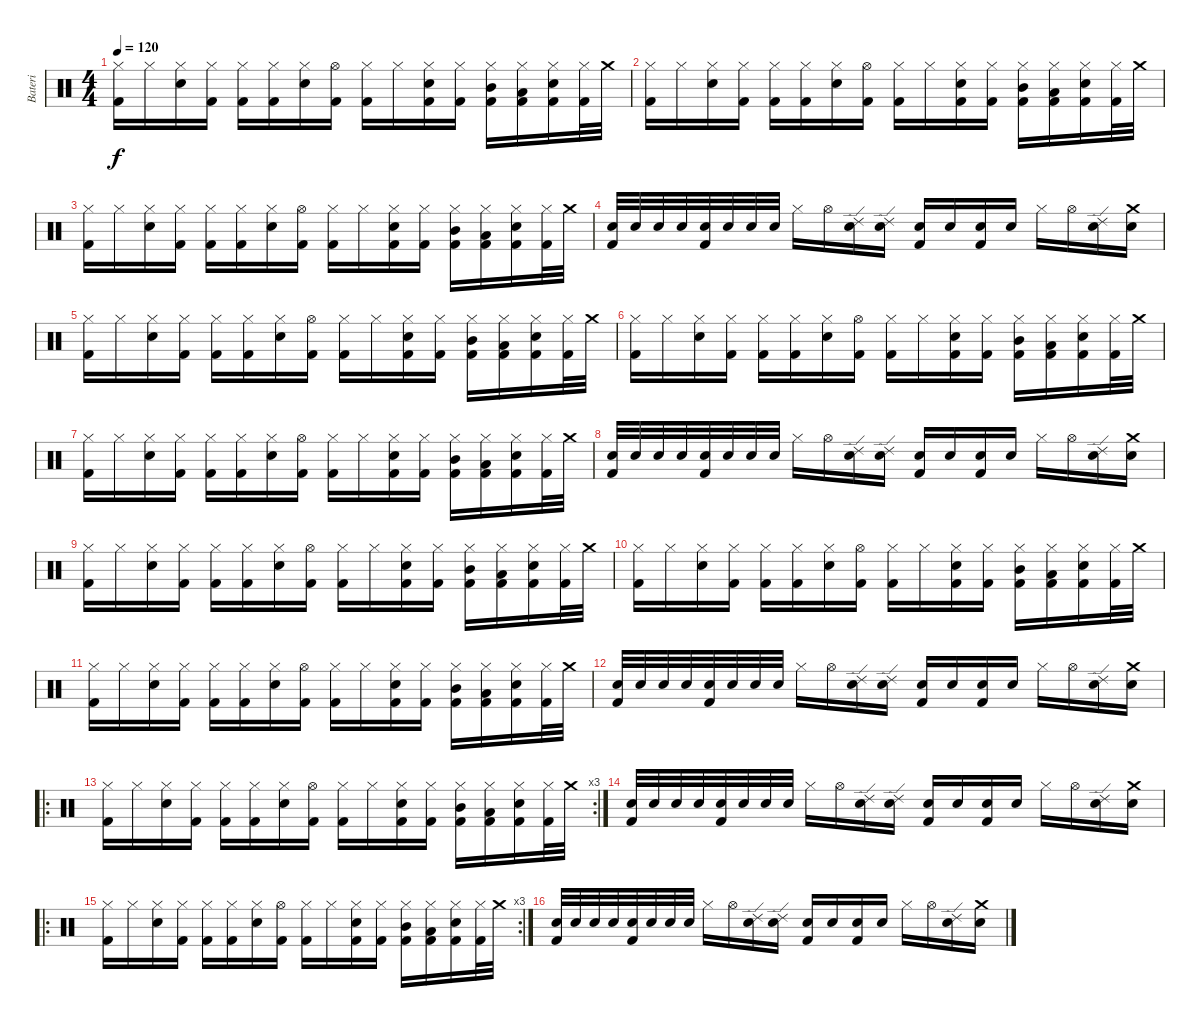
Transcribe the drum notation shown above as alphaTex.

\track ("Bateri" "Bateri") {instrument percussion}
\staff {score}
\articulation defaults
\ts (4 4)
\tempo 120
\clef neutral
\ks c
("Hi-Hat (closed)" "Kick (hit) 2").16{dy f} "Hi-Hat (closed)".16 ("Hi-Hat (closed)" "Electric Snare (hit)").16 ("Hi-Hat (closed)" "Kick (hit) 2").16 ("Hi-Hat (closed)" "Kick (hit) 2").16 ("Hi-Hat (closed)" "Kick (hit) 2").16 ("Hi-Hat (closed)" "Electric Snare (hit)").16 ("Hi-Hat (open)" "Kick (hit) 2").16 ("Hi-Hat (closed)" "Kick (hit) 2").16 "Hi-Hat (closed)".16 ("Hi-Hat (closed)" "Kick (hit) 2" "Electric Snare (hit)").16 ("Hi-Hat (closed)" "Kick (hit) 2").16 ("Hi-Hat (closed)" "Mid Tom (hit)" "Kick (hit) 2").16 ("Hi-Hat (closed)" "Low Tom (hit)" "Kick (hit) 2").16 ("Hi-Hat (closed)" "Electric Snare (hit)" "Kick (hit) 2").16 ("Hi-Hat (closed)" "Kick (hit) 2").32 "Crash medium (hit)".32 |
("Hi-Hat (closed)" "Kick (hit) 2").16 "Hi-Hat (closed)".16 ("Hi-Hat (closed)" "Electric Snare (hit)").16 ("Hi-Hat (closed)" "Kick (hit) 2").16 ("Hi-Hat (closed)" "Kick (hit) 2").16 ("Hi-Hat (closed)" "Kick (hit) 2").16 ("Hi-Hat (closed)" "Electric Snare (hit)").16 ("Hi-Hat (open)" "Kick (hit) 2").16 ("Hi-Hat (closed)" "Kick (hit) 2").16 "Hi-Hat (closed)".16 ("Hi-Hat (closed)" "Kick (hit) 2" "Electric Snare (hit)").16 ("Hi-Hat (closed)" "Kick (hit) 2").16 ("Hi-Hat (closed)" "Mid Tom (hit)" "Kick (hit) 2").16 ("Hi-Hat (closed)" "Low Tom (hit)" "Kick (hit) 2").16 ("Hi-Hat (closed)" "Electric Snare (hit)" "Kick (hit) 2").16 ("Hi-Hat (closed)" "Kick (hit) 2").32 "Crash medium (hit)".32 |
("Hi-Hat (closed)" "Kick (hit) 2").16 "Hi-Hat (closed)".16 ("Hi-Hat (closed)" "Electric Snare (hit)").16 ("Hi-Hat (closed)" "Kick (hit) 2").16 ("Hi-Hat (closed)" "Kick (hit) 2").16 ("Hi-Hat (closed)" "Kick (hit) 2").16 ("Hi-Hat (closed)" "Electric Snare (hit)").16 ("Hi-Hat (open)" "Kick (hit) 2").16 ("Hi-Hat (closed)" "Kick (hit) 2").16 "Hi-Hat (closed)".16 ("Hi-Hat (closed)" "Kick (hit) 2" "Electric Snare (hit)").16 ("Hi-Hat (closed)" "Kick (hit) 2").16 ("Hi-Hat (closed)" "Mid Tom (hit)" "Kick (hit) 2").16 ("Hi-Hat (closed)" "Low Tom (hit)" "Kick (hit) 2").16 ("Hi-Hat (closed)" "Electric Snare (hit)" "Kick (hit) 2").16 ("Hi-Hat (closed)" "Kick (hit) 2").32 "Crash medium (hit)".32 |
("Electric Snare (hit)" "Kick (hit) 2").32 "Electric Snare (hit)".32 "Electric Snare (hit)".32 "Electric Snare (hit)".32 ("Electric Snare (hit)" "Kick (hit) 2").32 "Electric Snare (hit)".32 "Electric Snare (hit)".32 "Electric Snare (hit)".32 "Hi-Hat (closed)".16 "Hi-Hat (open)".16 ("Ride (edge) 2" "Electric Snare (hit)").16 ("Ride (edge) 2" "Electric Snare (hit)").16 ("Electric Snare (hit)" "Kick (hit) 2").16 "Electric Snare (hit)".16 ("Electric Snare (hit)" "Kick (hit) 2").16 "Electric Snare (hit)".16 "Hi-Hat (closed)".16 "Hi-Hat (open)".16 ("Ride (edge) 2" "Electric Snare (hit)").16 ("Crash medium (hit)" "Electric Snare (hit)").16 |
("Hi-Hat (closed)" "Kick (hit) 2").16 "Hi-Hat (closed)".16 ("Hi-Hat (closed)" "Electric Snare (hit)").16 ("Hi-Hat (closed)" "Kick (hit) 2").16 ("Hi-Hat (closed)" "Kick (hit) 2").16 ("Hi-Hat (closed)" "Kick (hit) 2").16 ("Hi-Hat (closed)" "Electric Snare (hit)").16 ("Hi-Hat (open)" "Kick (hit) 2").16 ("Hi-Hat (closed)" "Kick (hit) 2").16 "Hi-Hat (closed)".16 ("Hi-Hat (closed)" "Kick (hit) 2" "Electric Snare (hit)").16 ("Hi-Hat (closed)" "Kick (hit) 2").16 ("Hi-Hat (closed)" "Mid Tom (hit)" "Kick (hit) 2").16 ("Hi-Hat (closed)" "Low Tom (hit)" "Kick (hit) 2").16 ("Hi-Hat (closed)" "Electric Snare (hit)" "Kick (hit) 2").16 ("Hi-Hat (closed)" "Kick (hit) 2").32 "Crash medium (hit)".32 |
("Hi-Hat (closed)" "Kick (hit) 2").16 "Hi-Hat (closed)".16 ("Hi-Hat (closed)" "Electric Snare (hit)").16 ("Hi-Hat (closed)" "Kick (hit) 2").16 ("Hi-Hat (closed)" "Kick (hit) 2").16 ("Hi-Hat (closed)" "Kick (hit) 2").16 ("Hi-Hat (closed)" "Electric Snare (hit)").16 ("Hi-Hat (open)" "Kick (hit) 2").16 ("Hi-Hat (closed)" "Kick (hit) 2").16 "Hi-Hat (closed)".16 ("Hi-Hat (closed)" "Kick (hit) 2" "Electric Snare (hit)").16 ("Hi-Hat (closed)" "Kick (hit) 2").16 ("Hi-Hat (closed)" "Mid Tom (hit)" "Kick (hit) 2").16 ("Hi-Hat (closed)" "Low Tom (hit)" "Kick (hit) 2").16 ("Hi-Hat (closed)" "Electric Snare (hit)" "Kick (hit) 2").16 ("Hi-Hat (closed)" "Kick (hit) 2").32 "Crash medium (hit)".32 |
("Hi-Hat (closed)" "Kick (hit) 2").16 "Hi-Hat (closed)".16 ("Hi-Hat (closed)" "Electric Snare (hit)").16 ("Hi-Hat (closed)" "Kick (hit) 2").16 ("Hi-Hat (closed)" "Kick (hit) 2").16 ("Hi-Hat (closed)" "Kick (hit) 2").16 ("Hi-Hat (closed)" "Electric Snare (hit)").16 ("Hi-Hat (open)" "Kick (hit) 2").16 ("Hi-Hat (closed)" "Kick (hit) 2").16 "Hi-Hat (closed)".16 ("Hi-Hat (closed)" "Kick (hit) 2" "Electric Snare (hit)").16 ("Hi-Hat (closed)" "Kick (hit) 2").16 ("Hi-Hat (closed)" "Mid Tom (hit)" "Kick (hit) 2").16 ("Hi-Hat (closed)" "Low Tom (hit)" "Kick (hit) 2").16 ("Hi-Hat (closed)" "Electric Snare (hit)" "Kick (hit) 2").16 ("Hi-Hat (closed)" "Kick (hit) 2").32 "Crash medium (hit)".32 |
("Electric Snare (hit)" "Kick (hit) 2").32 "Electric Snare (hit)".32 "Electric Snare (hit)".32 "Electric Snare (hit)".32 ("Electric Snare (hit)" "Kick (hit) 2").32 "Electric Snare (hit)".32 "Electric Snare (hit)".32 "Electric Snare (hit)".32 "Hi-Hat (closed)".16 "Hi-Hat (open)".16 ("Ride (edge) 2" "Electric Snare (hit)").16 ("Ride (edge) 2" "Electric Snare (hit)").16 ("Electric Snare (hit)" "Kick (hit) 2").16 "Electric Snare (hit)".16 ("Electric Snare (hit)" "Kick (hit) 2").16 "Electric Snare (hit)".16 "Hi-Hat (closed)".16 "Hi-Hat (open)".16 ("Ride (edge) 2" "Electric Snare (hit)").16 ("Crash medium (hit)" "Electric Snare (hit)").16 |
("Hi-Hat (closed)" "Kick (hit) 2").16 "Hi-Hat (closed)".16 ("Hi-Hat (closed)" "Electric Snare (hit)").16 ("Hi-Hat (closed)" "Kick (hit) 2").16 ("Hi-Hat (closed)" "Kick (hit) 2").16 ("Hi-Hat (closed)" "Kick (hit) 2").16 ("Hi-Hat (closed)" "Electric Snare (hit)").16 ("Hi-Hat (open)" "Kick (hit) 2").16 ("Hi-Hat (closed)" "Kick (hit) 2").16 "Hi-Hat (closed)".16 ("Hi-Hat (closed)" "Kick (hit) 2" "Electric Snare (hit)").16 ("Hi-Hat (closed)" "Kick (hit) 2").16 ("Hi-Hat (closed)" "Mid Tom (hit)" "Kick (hit) 2").16 ("Hi-Hat (closed)" "Low Tom (hit)" "Kick (hit) 2").16 ("Hi-Hat (closed)" "Electric Snare (hit)" "Kick (hit) 2").16 ("Hi-Hat (closed)" "Kick (hit) 2").32 "Crash medium (hit)".32 |
("Hi-Hat (closed)" "Kick (hit) 2").16 "Hi-Hat (closed)".16 ("Hi-Hat (closed)" "Electric Snare (hit)").16 ("Hi-Hat (closed)" "Kick (hit) 2").16 ("Hi-Hat (closed)" "Kick (hit) 2").16 ("Hi-Hat (closed)" "Kick (hit) 2").16 ("Hi-Hat (closed)" "Electric Snare (hit)").16 ("Hi-Hat (open)" "Kick (hit) 2").16 ("Hi-Hat (closed)" "Kick (hit) 2").16 "Hi-Hat (closed)".16 ("Hi-Hat (closed)" "Kick (hit) 2" "Electric Snare (hit)").16 ("Hi-Hat (closed)" "Kick (hit) 2").16 ("Hi-Hat (closed)" "Mid Tom (hit)" "Kick (hit) 2").16 ("Hi-Hat (closed)" "Low Tom (hit)" "Kick (hit) 2").16 ("Hi-Hat (closed)" "Electric Snare (hit)" "Kick (hit) 2").16 ("Hi-Hat (closed)" "Kick (hit) 2").32 "Crash medium (hit)".32 |
("Hi-Hat (closed)" "Kick (hit) 2").16 "Hi-Hat (closed)".16 ("Hi-Hat (closed)" "Electric Snare (hit)").16 ("Hi-Hat (closed)" "Kick (hit) 2").16 ("Hi-Hat (closed)" "Kick (hit) 2").16 ("Hi-Hat (closed)" "Kick (hit) 2").16 ("Hi-Hat (closed)" "Electric Snare (hit)").16 ("Hi-Hat (open)" "Kick (hit) 2").16 ("Hi-Hat (closed)" "Kick (hit) 2").16 "Hi-Hat (closed)".16 ("Hi-Hat (closed)" "Kick (hit) 2" "Electric Snare (hit)").16 ("Hi-Hat (closed)" "Kick (hit) 2").16 ("Hi-Hat (closed)" "Mid Tom (hit)" "Kick (hit) 2").16 ("Hi-Hat (closed)" "Low Tom (hit)" "Kick (hit) 2").16 ("Hi-Hat (closed)" "Electric Snare (hit)" "Kick (hit) 2").16 ("Hi-Hat (closed)" "Kick (hit) 2").32 "Crash medium (hit)".32 |
("Electric Snare (hit)" "Kick (hit) 2").32 "Electric Snare (hit)".32 "Electric Snare (hit)".32 "Electric Snare (hit)".32 ("Electric Snare (hit)" "Kick (hit) 2").32 "Electric Snare (hit)".32 "Electric Snare (hit)".32 "Electric Snare (hit)".32 "Hi-Hat (closed)".16 "Hi-Hat (open)".16 ("Ride (edge) 2" "Electric Snare (hit)").16 ("Ride (edge) 2" "Electric Snare (hit)").16 ("Electric Snare (hit)" "Kick (hit) 2").16 "Electric Snare (hit)".16 ("Electric Snare (hit)" "Kick (hit) 2").16 "Electric Snare (hit)".16 "Hi-Hat (closed)".16 "Hi-Hat (open)".16 ("Ride (edge) 2" "Electric Snare (hit)").16 ("Crash medium (hit)" "Electric Snare (hit)").16 |
\ro
\rc 3
("Hi-Hat (closed)" "Kick (hit) 2").16 "Hi-Hat (closed)".16 ("Hi-Hat (closed)" "Electric Snare (hit)").16 ("Hi-Hat (closed)" "Kick (hit) 2").16 ("Hi-Hat (closed)" "Kick (hit) 2").16 ("Hi-Hat (closed)" "Kick (hit) 2").16 ("Hi-Hat (closed)" "Electric Snare (hit)").16 ("Hi-Hat (open)" "Kick (hit) 2").16 ("Hi-Hat (closed)" "Kick (hit) 2").16 "Hi-Hat (closed)".16 ("Hi-Hat (closed)" "Kick (hit) 2" "Electric Snare (hit)").16 ("Hi-Hat (closed)" "Kick (hit) 2").16 ("Hi-Hat (closed)" "Mid Tom (hit)" "Kick (hit) 2").16 ("Hi-Hat (closed)" "Low Tom (hit)" "Kick (hit) 2").16 ("Hi-Hat (closed)" "Electric Snare (hit)" "Kick (hit) 2").16 ("Hi-Hat (closed)" "Kick (hit) 2").32 "Crash medium (hit)".32 |
("Electric Snare (hit)" "Kick (hit) 2").32 "Electric Snare (hit)".32 "Electric Snare (hit)".32 "Electric Snare (hit)".32 ("Electric Snare (hit)" "Kick (hit) 2").32 "Electric Snare (hit)".32 "Electric Snare (hit)".32 "Electric Snare (hit)".32 "Hi-Hat (closed)".16 "Hi-Hat (open)".16 ("Ride (edge) 2" "Electric Snare (hit)").16 ("Ride (edge) 2" "Electric Snare (hit)").16 ("Electric Snare (hit)" "Kick (hit) 2").16 "Electric Snare (hit)".16 ("Electric Snare (hit)" "Kick (hit) 2").16 "Electric Snare (hit)".16 "Hi-Hat (closed)".16 "Hi-Hat (open)".16 ("Ride (edge) 2" "Electric Snare (hit)").16 ("Crash medium (hit)" "Electric Snare (hit)").16 |
\ro
\rc 3
("Hi-Hat (closed)" "Kick (hit) 2").16 "Hi-Hat (closed)".16 ("Hi-Hat (closed)" "Electric Snare (hit)").16 ("Hi-Hat (closed)" "Kick (hit) 2").16 ("Hi-Hat (closed)" "Kick (hit) 2").16 ("Hi-Hat (closed)" "Kick (hit) 2").16 ("Hi-Hat (closed)" "Electric Snare (hit)").16 ("Hi-Hat (open)" "Kick (hit) 2").16 ("Hi-Hat (closed)" "Kick (hit) 2").16 "Hi-Hat (closed)".16 ("Hi-Hat (closed)" "Kick (hit) 2" "Electric Snare (hit)").16 ("Hi-Hat (closed)" "Kick (hit) 2").16 ("Hi-Hat (closed)" "Mid Tom (hit)" "Kick (hit) 2").16 ("Hi-Hat (closed)" "Low Tom (hit)" "Kick (hit) 2").16 ("Hi-Hat (closed)" "Electric Snare (hit)" "Kick (hit) 2").16 ("Hi-Hat (closed)" "Kick (hit) 2").32 "Crash medium (hit)".32 |
("Electric Snare (hit)" "Kick (hit) 2").32 "Electric Snare (hit)".32 "Electric Snare (hit)".32 "Electric Snare (hit)".32 ("Electric Snare (hit)" "Kick (hit) 2").32 "Electric Snare (hit)".32 "Electric Snare (hit)".32 "Electric Snare (hit)".32 "Hi-Hat (closed)".16 "Hi-Hat (open)".16 ("Ride (edge) 2" "Electric Snare (hit)").16 ("Ride (edge) 2" "Electric Snare (hit)").16 ("Electric Snare (hit)" "Kick (hit) 2").16 "Electric Snare (hit)".16 ("Electric Snare (hit)" "Kick (hit) 2").16 "Electric Snare (hit)".16 "Hi-Hat (closed)".16 "Hi-Hat (open)".16 ("Ride (edge) 2" "Electric Snare (hit)").16 ("Crash medium (hit)" "Electric Snare (hit)").16
